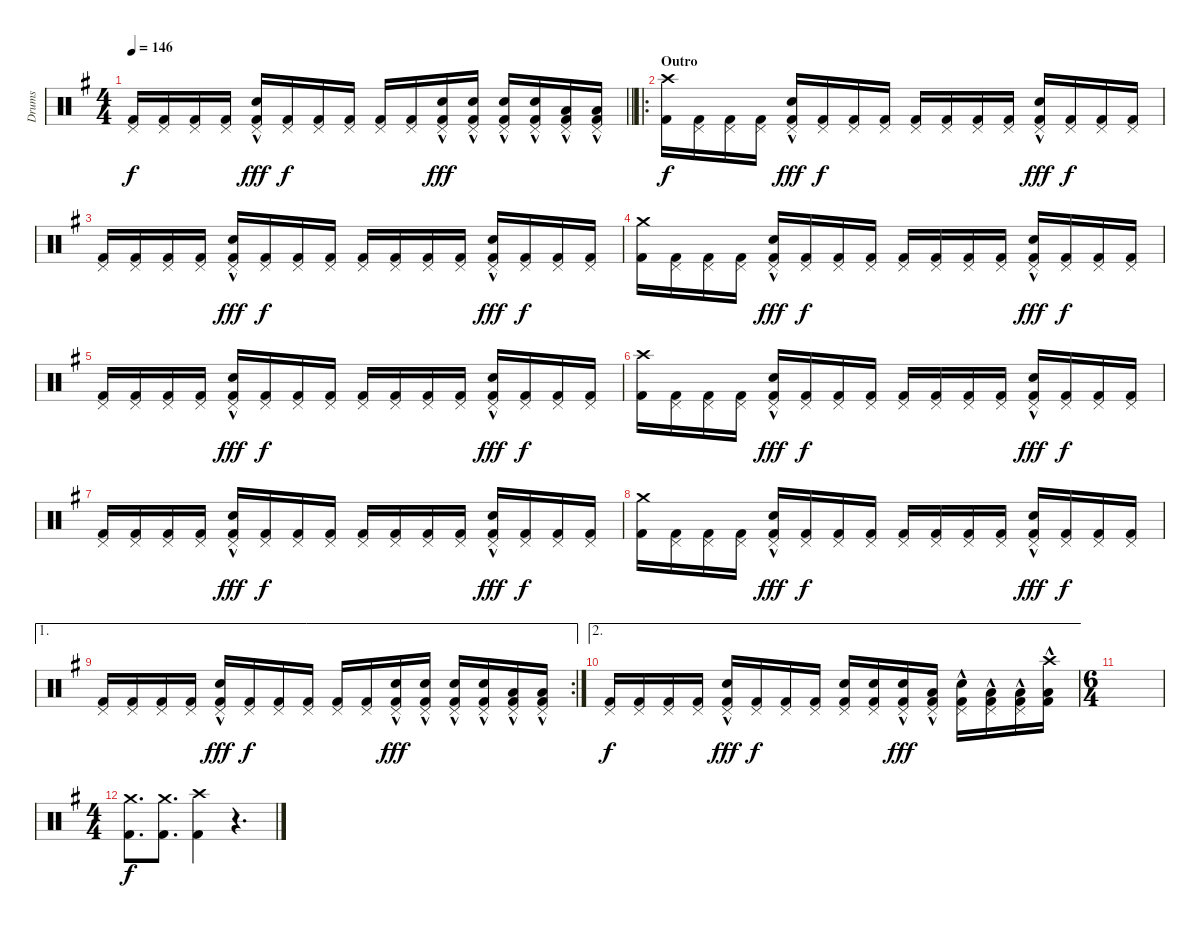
\track ("Drums" "Drums") {instrument percussion}
\staff {score}
\articulation defaults
\ts (4 4)
\tempo 146
\clef neutral
\barLineRight lightlight
\ks eminor
("Pedal Hi-Hat (hit)" "Kick (hit) 2").16{dy f} ("Pedal Hi-Hat (hit)" "Kick (hit) 2").16 ("Pedal Hi-Hat (hit)" "Kick (hit) 2").16 ("Pedal Hi-Hat (hit)" "Kick (hit) 2").16 ("Pedal Hi-Hat (hit)"{hac} "Snare (hit) 2" "Kick (hit) 2").16{dy fff} ("Pedal Hi-Hat (hit)" "Kick (hit) 2").16{dy f} ("Pedal Hi-Hat (hit)" "Kick (hit) 2").16 ("Pedal Hi-Hat (hit)" "Kick (hit) 2").16 ("Pedal Hi-Hat (hit)" "Kick (hit) 2").16 ("Pedal Hi-Hat (hit)" "Kick (hit) 2").16 ("Pedal Hi-Hat (hit)" "Snare (hit) 2"{hac} "Kick (hit) 2").16{dy fff} ("Pedal Hi-Hat (hit)" "Snare (hit) 2"{hac} "Kick (hit) 2").16 ("Pedal Hi-Hat (hit)"{hac} "Snare (hit) 2"{hac} "Kick (hit) 2").16 ("Pedal Hi-Hat (hit)" "Snare (hit) 2"{hac} "Kick (hit) 2").16 ("Pedal Hi-Hat (hit)" "Low Floor Tom (hit)"{hac} "Kick (hit) 2").16 ("Pedal Hi-Hat (hit)" "Low Floor Tom (hit)"{hac} "Kick (hit) 2").16 |
\ro
\section ("" "Outro")
("Crash high (hit)" "Kick (hit) 2").16{dy f} ("Pedal Hi-Hat (hit)" "Kick (hit) 2").16 ("Pedal Hi-Hat (hit)" "Kick (hit) 2").16 ("Pedal Hi-Hat (hit)" "Kick (hit) 2").16 ("Pedal Hi-Hat (hit)"{hac} "Snare (hit) 2" "Kick (hit) 2").16{dy fff} ("Pedal Hi-Hat (hit)" "Kick (hit) 2").16{dy f} ("Pedal Hi-Hat (hit)" "Kick (hit) 2").16 ("Pedal Hi-Hat (hit)" "Kick (hit) 2").16 ("Pedal Hi-Hat (hit)" "Kick (hit) 2").16 ("Pedal Hi-Hat (hit)" "Kick (hit) 2").16 ("Pedal Hi-Hat (hit)" "Kick (hit) 2").16 ("Pedal Hi-Hat (hit)" "Kick (hit) 2").16 ("Pedal Hi-Hat (hit)"{hac} "Snare (hit) 2" "Kick (hit) 2").16{dy fff} ("Pedal Hi-Hat (hit)" "Kick (hit) 2").16{dy f} ("Pedal Hi-Hat (hit)" "Kick (hit) 2").16 ("Pedal Hi-Hat (hit)" "Kick (hit) 2").16 |
("Pedal Hi-Hat (hit)" "Kick (hit) 2").16 ("Pedal Hi-Hat (hit)" "Kick (hit) 2").16 ("Pedal Hi-Hat (hit)" "Kick (hit) 2").16 ("Pedal Hi-Hat (hit)" "Kick (hit) 2").16 ("Pedal Hi-Hat (hit)"{hac} "Snare (hit) 2" "Kick (hit) 2").16{dy fff} ("Pedal Hi-Hat (hit)" "Kick (hit) 2").16{dy f} ("Pedal Hi-Hat (hit)" "Kick (hit) 2").16 ("Pedal Hi-Hat (hit)" "Kick (hit) 2").16 ("Pedal Hi-Hat (hit)" "Kick (hit) 2").16 ("Pedal Hi-Hat (hit)" "Kick (hit) 2").16 ("Pedal Hi-Hat (hit)" "Kick (hit) 2").16 ("Pedal Hi-Hat (hit)" "Kick (hit) 2").16 ("Pedal Hi-Hat (hit)"{hac} "Snare (hit) 2" "Kick (hit) 2").16{dy fff} ("Pedal Hi-Hat (hit)" "Kick (hit) 2").16{dy f} ("Pedal Hi-Hat (hit)" "Kick (hit) 2").16 ("Pedal Hi-Hat (hit)" "Kick (hit) 2").16 |
("Crash medium (hit)" "Kick (hit) 2").16 ("Pedal Hi-Hat (hit)" "Kick (hit) 2").16 ("Pedal Hi-Hat (hit)" "Kick (hit) 2").16 ("Pedal Hi-Hat (hit)" "Kick (hit) 2").16 ("Pedal Hi-Hat (hit)"{hac} "Snare (hit) 2" "Kick (hit) 2").16{dy fff} ("Pedal Hi-Hat (hit)" "Kick (hit) 2").16{dy f} ("Pedal Hi-Hat (hit)" "Kick (hit) 2").16 ("Pedal Hi-Hat (hit)" "Kick (hit) 2").16 ("Pedal Hi-Hat (hit)" "Kick (hit) 2").16 ("Pedal Hi-Hat (hit)" "Kick (hit) 2").16 ("Pedal Hi-Hat (hit)" "Kick (hit) 2").16 ("Pedal Hi-Hat (hit)" "Kick (hit) 2").16 ("Pedal Hi-Hat (hit)"{hac} "Snare (hit) 2" "Kick (hit) 2").16{dy fff} ("Pedal Hi-Hat (hit)" "Kick (hit) 2").16{dy f} ("Pedal Hi-Hat (hit)" "Kick (hit) 2").16 ("Pedal Hi-Hat (hit)" "Kick (hit) 2").16 |
("Pedal Hi-Hat (hit)" "Kick (hit) 2").16 ("Pedal Hi-Hat (hit)" "Kick (hit) 2").16 ("Pedal Hi-Hat (hit)" "Kick (hit) 2").16 ("Pedal Hi-Hat (hit)" "Kick (hit) 2").16 ("Pedal Hi-Hat (hit)"{hac} "Snare (hit) 2" "Kick (hit) 2").16{dy fff} ("Pedal Hi-Hat (hit)" "Kick (hit) 2").16{dy f} ("Pedal Hi-Hat (hit)" "Kick (hit) 2").16 ("Pedal Hi-Hat (hit)" "Kick (hit) 2").16 ("Pedal Hi-Hat (hit)" "Kick (hit) 2").16 ("Pedal Hi-Hat (hit)" "Kick (hit) 2").16 ("Pedal Hi-Hat (hit)" "Kick (hit) 2").16 ("Pedal Hi-Hat (hit)" "Kick (hit) 2").16 ("Pedal Hi-Hat (hit)"{hac} "Snare (hit) 2" "Kick (hit) 2").16{dy fff} ("Pedal Hi-Hat (hit)" "Kick (hit) 2").16{dy f} ("Pedal Hi-Hat (hit)" "Kick (hit) 2").16 ("Pedal Hi-Hat (hit)" "Kick (hit) 2").16 |
("Crash high (hit)" "Kick (hit) 2").16 ("Pedal Hi-Hat (hit)" "Kick (hit) 2").16 ("Pedal Hi-Hat (hit)" "Kick (hit) 2").16 ("Pedal Hi-Hat (hit)" "Kick (hit) 2").16 ("Pedal Hi-Hat (hit)"{hac} "Snare (hit) 2" "Kick (hit) 2").16{dy fff} ("Pedal Hi-Hat (hit)" "Kick (hit) 2").16{dy f} ("Pedal Hi-Hat (hit)" "Kick (hit) 2").16 ("Pedal Hi-Hat (hit)" "Kick (hit) 2").16 ("Pedal Hi-Hat (hit)" "Kick (hit) 2").16 ("Pedal Hi-Hat (hit)" "Kick (hit) 2").16 ("Pedal Hi-Hat (hit)" "Kick (hit) 2").16 ("Pedal Hi-Hat (hit)" "Kick (hit) 2").16 ("Pedal Hi-Hat (hit)"{hac} "Snare (hit) 2" "Kick (hit) 2").16{dy fff} ("Pedal Hi-Hat (hit)" "Kick (hit) 2").16{dy f} ("Pedal Hi-Hat (hit)" "Kick (hit) 2").16 ("Pedal Hi-Hat (hit)" "Kick (hit) 2").16 |
("Pedal Hi-Hat (hit)" "Kick (hit) 2").16 ("Pedal Hi-Hat (hit)" "Kick (hit) 2").16 ("Pedal Hi-Hat (hit)" "Kick (hit) 2").16 ("Pedal Hi-Hat (hit)" "Kick (hit) 2").16 ("Pedal Hi-Hat (hit)"{hac} "Snare (hit) 2" "Kick (hit) 2").16{dy fff} ("Pedal Hi-Hat (hit)" "Kick (hit) 2").16{dy f} ("Pedal Hi-Hat (hit)" "Kick (hit) 2").16 ("Pedal Hi-Hat (hit)" "Kick (hit) 2").16 ("Pedal Hi-Hat (hit)" "Kick (hit) 2").16 ("Pedal Hi-Hat (hit)" "Kick (hit) 2").16 ("Pedal Hi-Hat (hit)" "Kick (hit) 2").16 ("Pedal Hi-Hat (hit)" "Kick (hit) 2").16 ("Pedal Hi-Hat (hit)"{hac} "Snare (hit) 2" "Kick (hit) 2").16{dy fff} ("Pedal Hi-Hat (hit)" "Kick (hit) 2").16{dy f} ("Pedal Hi-Hat (hit)" "Kick (hit) 2").16 ("Pedal Hi-Hat (hit)" "Kick (hit) 2").16 |
("Crash medium (hit)" "Kick (hit) 2").16 ("Pedal Hi-Hat (hit)" "Kick (hit) 2").16 ("Pedal Hi-Hat (hit)" "Kick (hit) 2").16 ("Pedal Hi-Hat (hit)" "Kick (hit) 2").16 ("Pedal Hi-Hat (hit)"{hac} "Snare (hit) 2" "Kick (hit) 2").16{dy fff} ("Pedal Hi-Hat (hit)" "Kick (hit) 2").16{dy f} ("Pedal Hi-Hat (hit)" "Kick (hit) 2").16 ("Pedal Hi-Hat (hit)" "Kick (hit) 2").16 ("Pedal Hi-Hat (hit)" "Kick (hit) 2").16 ("Pedal Hi-Hat (hit)" "Kick (hit) 2").16 ("Pedal Hi-Hat (hit)" "Kick (hit) 2").16 ("Pedal Hi-Hat (hit)" "Kick (hit) 2").16 ("Pedal Hi-Hat (hit)"{hac} "Snare (hit) 2" "Kick (hit) 2").16{dy fff} ("Pedal Hi-Hat (hit)" "Kick (hit) 2").16{dy f} ("Pedal Hi-Hat (hit)" "Kick (hit) 2").16 ("Pedal Hi-Hat (hit)" "Kick (hit) 2").16 |
\ae 1
\rc 2
("Pedal Hi-Hat (hit)" "Kick (hit) 2").16 ("Pedal Hi-Hat (hit)" "Kick (hit) 2").16 ("Pedal Hi-Hat (hit)" "Kick (hit) 2").16 ("Pedal Hi-Hat (hit)" "Kick (hit) 2").16 ("Pedal Hi-Hat (hit)"{hac} "Snare (hit) 2" "Kick (hit) 2").16{dy fff} ("Pedal Hi-Hat (hit)" "Kick (hit) 2").16{dy f} ("Pedal Hi-Hat (hit)" "Kick (hit) 2").16 ("Pedal Hi-Hat (hit)" "Kick (hit) 2").16 ("Pedal Hi-Hat (hit)" "Kick (hit) 2").16 ("Pedal Hi-Hat (hit)" "Kick (hit) 2").16 ("Pedal Hi-Hat (hit)" "Snare (hit) 2"{hac} "Kick (hit) 2").16{dy fff} ("Pedal Hi-Hat (hit)" "Snare (hit) 2"{hac} "Kick (hit) 2").16 ("Pedal Hi-Hat (hit)"{hac} "Snare (hit) 2"{hac} "Kick (hit) 2").16 ("Pedal Hi-Hat (hit)" "Snare (hit) 2"{hac} "Kick (hit) 2").16 ("Pedal Hi-Hat (hit)" "Low Floor Tom (hit)"{hac} "Kick (hit) 2").16 ("Pedal Hi-Hat (hit)" "Low Floor Tom (hit)"{hac} "Kick (hit) 2").16 |
\ae 2
("Pedal Hi-Hat (hit)" "Kick (hit) 2").16{dy f} ("Pedal Hi-Hat (hit)" "Kick (hit) 2").16 ("Pedal Hi-Hat (hit)" "Kick (hit) 2").16 ("Pedal Hi-Hat (hit)" "Kick (hit) 2").16 ("Pedal Hi-Hat (hit)"{hac} "Snare (hit) 2" "Kick (hit) 2").16{dy fff} ("Pedal Hi-Hat (hit)" "Kick (hit) 2").16{dy f} ("Pedal Hi-Hat (hit)" "Kick (hit) 2").16 ("Pedal Hi-Hat (hit)" "Kick (hit) 2").16 ("Pedal Hi-Hat (hit)" "Snare (hit) 2" "Kick (hit) 2").16 ("Pedal Hi-Hat (hit)" "Snare (hit) 2" "Kick (hit) 2").16 ("Pedal Hi-Hat (hit)" "Snare (hit) 2"{hac} "Kick (hit) 2").16{dy fff} ("Pedal Hi-Hat (hit)" "Low Floor Tom (hit)"{hac} "Kick (hit) 2").16 ("Pedal Hi-Hat (hit)"{hac} "Snare (hit) 2"{hac} "Kick (hit) 2").16 ("Pedal Hi-Hat (hit)" "Low Floor Tom (hit)"{hac} "Kick (hit) 2").16 ("Pedal Hi-Hat (hit)" "Low Floor Tom (hit)"{hac} "Kick (hit) 2").16 ("Crash high (hit)" "Low Floor Tom (hit)"{hac} "Kick (hit) 2").16 |
\ts (6 4)
|
\ts (4 4)
("Crash medium (hit)" "Kick (hit) 2").8{d dy f} ("Crash medium (hit)" "Kick (hit) 2").8{d} ("Crash high (hit)" "Kick (hit) 2").4 r.4{d}
